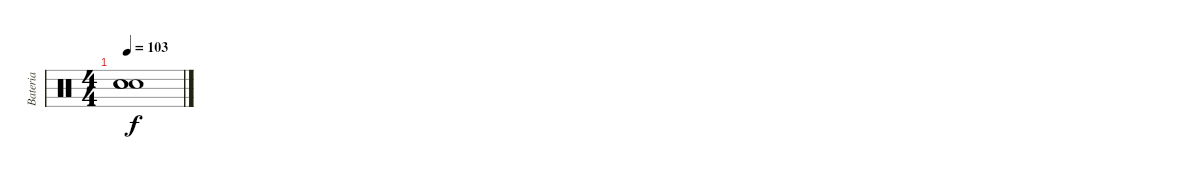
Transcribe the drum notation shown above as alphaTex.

\track ("Bateria" "Bateria") {instrument percussion}
\staff {score}
\articulation defaults
\ts (4 4)
\tempo 103
\clef neutral
\ks c
("Snare (hit)"{t} "Snare (hit)"{t} "Snare (hit)"{t}).1{dy f}
